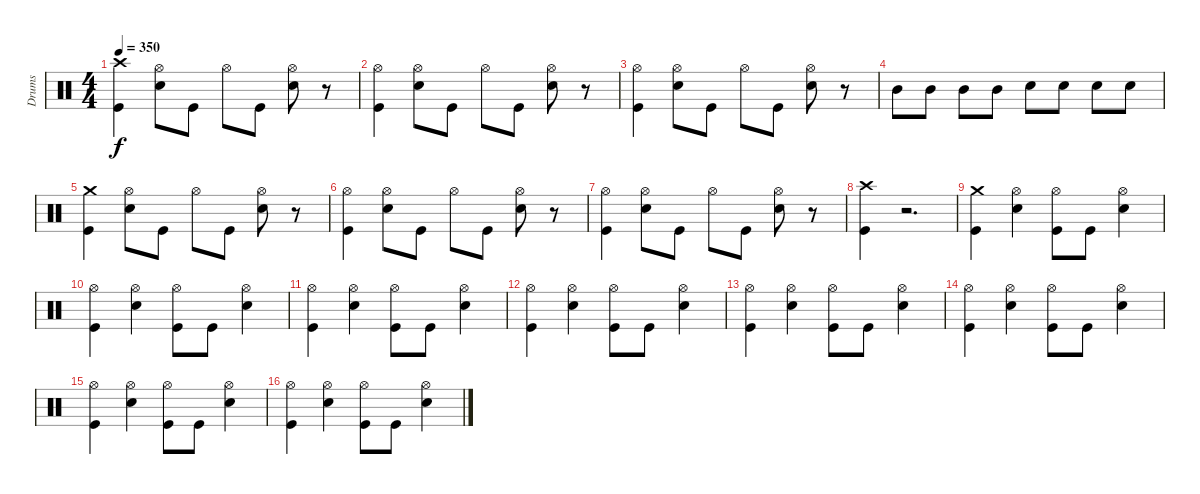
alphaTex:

\track ("Drums" "Drums") {instrument percussion}
\staff {score}
\articulation defaults
\ts (4 4)
\tempo 350
\clef neutral
\ks c
("Crash high (hit)" "Kick (hit)").4{dy f} ("Hi-Hat (open)" "Snare (hit) 2").8 "Kick (hit)".8 "Hi-Hat (open)".8 "Kick (hit)".8 ("Hi-Hat (open)" "Snare (hit) 2").8 r.8 |
("Hi-Hat (open)" "Kick (hit)").4 ("Hi-Hat (open)" "Snare (hit) 2").8 "Kick (hit)".8 "Hi-Hat (open)".8 "Kick (hit)".8 ("Hi-Hat (open)" "Snare (hit) 2").8 r.8 |
("Hi-Hat (open)" "Kick (hit)").4 ("Hi-Hat (open)" "Snare (hit) 2").8 "Kick (hit)".8 "Hi-Hat (open)".8 "Kick (hit)".8 ("Hi-Hat (open)" "Snare (hit) 2").8 r.8 |
"Mid Tom (hit)".8 "Mid Tom (hit)".8 "Mid Tom (hit)".8 "Mid Tom (hit)".8 "Snare (hit) 2".8 "Snare (hit) 2".8 "Snare (hit) 2".8 "Snare (hit) 2".8 |
("Crash medium (hit)" "Kick (hit)").4 ("Hi-Hat (open)" "Snare (hit) 2").8 "Kick (hit)".8 "Hi-Hat (open)".8 "Kick (hit)".8 ("Hi-Hat (open)" "Snare (hit) 2").8 r.8 |
("Hi-Hat (open)" "Kick (hit)").4 ("Hi-Hat (open)" "Snare (hit) 2").8 "Kick (hit)".8 "Hi-Hat (open)".8 "Kick (hit)".8 ("Hi-Hat (open)" "Snare (hit) 2").8 r.8 |
("Hi-Hat (open)" "Kick (hit)").4 ("Hi-Hat (open)" "Snare (hit) 2").8 "Kick (hit)".8 "Hi-Hat (open)".8 "Kick (hit)".8 ("Hi-Hat (open)" "Snare (hit) 2").8 r.8 |
("Crash high (hit)" "Kick (hit)").4 r.2{d} |
("Crash medium (hit)" "Kick (hit)").4 ("Hi-Hat (open)" "Snare (hit) 2").4 ("Hi-Hat (open)" "Kick (hit)").8 "Kick (hit)".8 ("Hi-Hat (open)" "Snare (hit) 2").4 |
("Hi-Hat (open)" "Kick (hit)").4 ("Hi-Hat (open)" "Snare (hit) 2").4 ("Hi-Hat (open)" "Kick (hit)").8 "Kick (hit)".8 ("Hi-Hat (open)" "Snare (hit) 2").4 |
("Hi-Hat (open)" "Kick (hit)").4 ("Hi-Hat (open)" "Snare (hit) 2").4 ("Hi-Hat (open)" "Kick (hit)").8 "Kick (hit)".8 ("Hi-Hat (open)" "Snare (hit) 2").4 |
("Hi-Hat (open)" "Kick (hit)").4 ("Hi-Hat (open)" "Snare (hit) 2").4 ("Hi-Hat (open)" "Kick (hit)").8 "Kick (hit)".8 ("Hi-Hat (open)" "Snare (hit) 2").4 |
("Hi-Hat (open)" "Kick (hit)").4 ("Hi-Hat (open)" "Snare (hit) 2").4 ("Hi-Hat (open)" "Kick (hit)").8 "Kick (hit)".8 ("Hi-Hat (open)" "Snare (hit) 2").4 |
("Hi-Hat (open)" "Kick (hit)").4 ("Hi-Hat (open)" "Snare (hit) 2").4 ("Hi-Hat (open)" "Kick (hit)").8 "Kick (hit)".8 ("Hi-Hat (open)" "Snare (hit) 2").4 |
("Hi-Hat (open)" "Kick (hit)").4 ("Hi-Hat (open)" "Snare (hit) 2").4 ("Hi-Hat (open)" "Kick (hit)").8 "Kick (hit)".8 ("Hi-Hat (open)" "Snare (hit) 2").4 |
("Hi-Hat (open)" "Kick (hit)").4 ("Hi-Hat (open)" "Snare (hit) 2").4 ("Hi-Hat (open)" "Kick (hit)").8 "Kick (hit)".8 ("Hi-Hat (open)" "Snare (hit) 2").4
